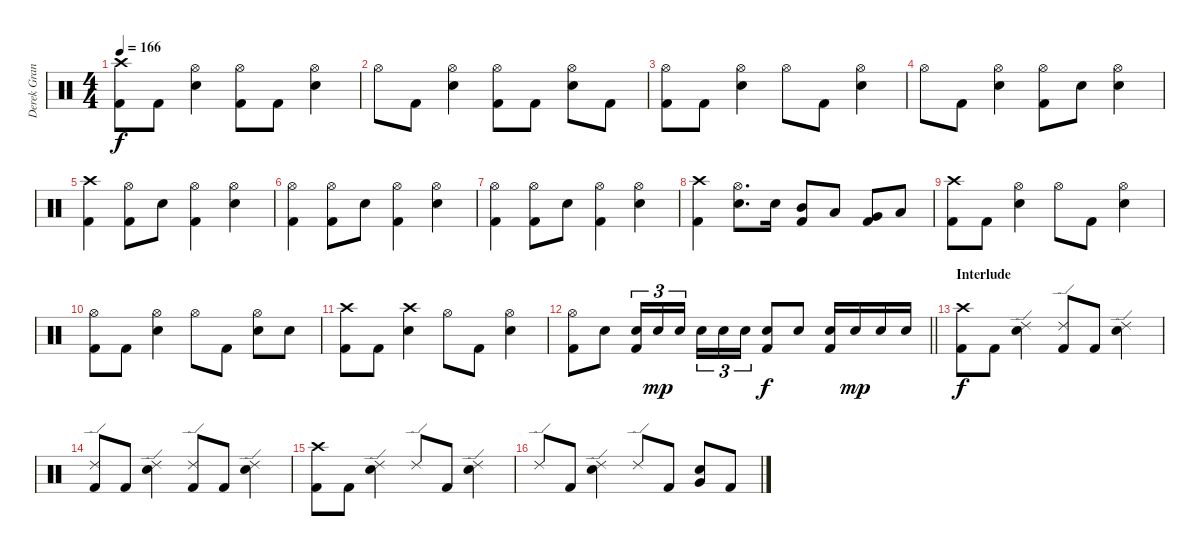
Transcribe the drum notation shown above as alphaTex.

\track ("Derek Grant - Drums" "Derek Gran") {instrument percussion}
\staff {score}
\articulation defaults
\ts (4 4)
\tempo 166
\clef neutral
\ks c
("Crash high (hit)" "Kick (hit) 2").8{dy f} "Kick (hit) 2".8 ("Snare (hit) 2" "Hi-Hat (open)").4 ("Hi-Hat (open)" "Kick (hit) 2").8 "Kick (hit) 2".8 ("Snare (hit) 2" "Hi-Hat (open)").4 |
"Hi-Hat (open)".8 "Kick (hit) 2".8 ("Snare (hit) 2" "Hi-Hat (open)").4 ("Hi-Hat (open)" "Kick (hit) 2").8 "Kick (hit) 2".8 ("Snare (hit) 2" "Hi-Hat (open)").8 "Kick (hit) 2".8 |
("Hi-Hat (open)" "Kick (hit) 2").8 "Kick (hit) 2".8 ("Snare (hit) 2" "Hi-Hat (open)").4 "Hi-Hat (open)".8 "Kick (hit) 2".8 ("Snare (hit) 2" "Hi-Hat (open)").4 |
"Hi-Hat (open)".8 "Kick (hit) 2".8 ("Snare (hit) 2" "Hi-Hat (open)").4 ("Hi-Hat (open)" "Kick (hit) 2").8 "Snare (hit) 2".8 ("Snare (hit) 2" "Hi-Hat (open)").4 |
("Crash high (hit)" "Kick (hit) 2").4 ("Hi-Hat (open)" "Kick (hit) 2").8 "Snare (hit) 2".8 ("Hi-Hat (open)" "Kick (hit) 2").4 ("Snare (hit) 2" "Hi-Hat (open)").4 |
("Hi-Hat (open)" "Kick (hit) 2").4 ("Hi-Hat (open)" "Kick (hit) 2").8 "Snare (hit) 2".8 ("Hi-Hat (open)" "Kick (hit) 2").4 ("Snare (hit) 2" "Hi-Hat (open)").4 |
("Hi-Hat (open)" "Kick (hit) 2").4 ("Hi-Hat (open)" "Kick (hit) 2").8 "Snare (hit) 2".8 ("Hi-Hat (open)" "Kick (hit) 2").4 ("Snare (hit) 2" "Hi-Hat (open)").4 |
("Crash high (hit)" "Kick (hit) 2").4 ("Snare (hit) 2" "Hi-Hat (open)").8{d} "Snare (hit) 2".16 ("Mid Tom (hit)" "Kick (hit) 2").8 "Low Tom (hit)".8 ("Very Low Tom (hit)" "Kick (hit) 2").8 "Low Floor Tom (hit)".8 |
("Crash high (hit)" "Kick (hit) 2").8 "Kick (hit) 2".8 ("Snare (hit) 2" "Hi-Hat (open)").4 "Hi-Hat (open)".8 "Kick (hit) 2".8 ("Snare (hit) 2" "Hi-Hat (open)").4 |
("Hi-Hat (open)" "Kick (hit) 2").8 "Kick (hit) 2".8 ("Snare (hit) 2" "Hi-Hat (open)").4 "Hi-Hat (open)".8 "Kick (hit) 2".8 ("Snare (hit) 2" "Hi-Hat (open)").8 "Snare (hit) 2".8 |
("Crash high (hit)" "Kick (hit) 2").8 "Kick (hit) 2".8 ("Snare (hit) 2" "Crash high (hit)").4 "Hi-Hat (open)".8 "Kick (hit) 2".8 ("Snare (hit) 2" "Hi-Hat (open)").4 |
\barLineRight lightlight
("Kick (hit) 2" "Hi-Hat (open)").8 "Snare (hit) 2".8 ("Snare (hit) 2" "Kick (hit) 2").16{tu (3 2)} "Snare (hit) 2".16{tu (3 2) dy mp} "Snare (hit) 2".16{tu (3 2) beam splitsecondary} "Snare (hit) 2".16{tu (3 2)} "Snare (hit) 2".16{tu (3 2)} "Snare (hit) 2".16{tu (3 2)} ("Snare (hit) 2" "Kick (hit) 2").8{dy f} "Snare (hit) 2".8 ("Snare (hit) 2" "Kick (hit) 2").16 "Snare (hit) 2".16{dy mp} "Snare (hit) 2".16 "Snare (hit) 2".16 |
\section ("" "Interlude")
("Crash high (hit)" "Kick (hit) 2").8{dy f} "Kick (hit) 2".8 ("Snare (hit) 2" "Ride (edge) 2").4 ("Kick (hit) 2" "Ride (edge) 2").8 "Kick (hit) 2".8 ("Ride (edge) 2" "Snare (hit) 2").4 |
("Kick (hit) 2" "Ride (edge) 2").8 "Kick (hit) 2".8 ("Ride (edge) 2" "Snare (hit) 2").4 ("Kick (hit) 2" "Ride (edge) 2").8 "Kick (hit) 2".8 ("Ride (edge) 2" "Snare (hit) 2").4 |
("Crash high (hit)" "Kick (hit) 2").8 "Kick (hit) 2".8 ("Ride (edge) 2" "Snare (hit) 2").4 "Ride (edge) 2".8 "Kick (hit) 2".8 ("Ride (edge) 2" "Snare (hit) 2").4 |
"Ride (edge) 2".8 "Kick (hit) 2".8 ("Ride (edge) 2" "Snare (hit) 2").4 "Ride (edge) 2".8 "Kick (hit) 2".8 ("Snare (hit) 2" "Very Low Tom (hit)").8 "Kick (hit) 2".8
